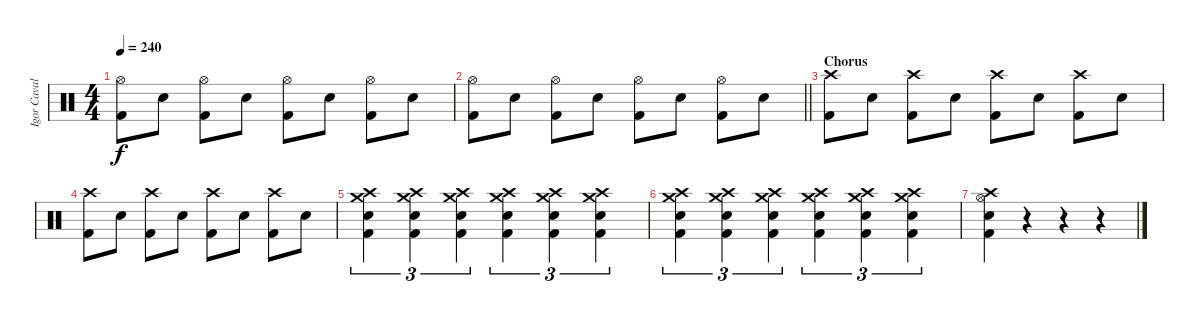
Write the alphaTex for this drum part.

\track ("Igor Cavalera" "Igor Caval") {instrument percussion}
\staff {score}
\articulation defaults
\ts (4 4)
\tempo 240
\clef neutral
\ks c
("Hi-Hat (open)" "Kick (hit) 2").8{dy f} "Electric Snare (hit)".8 ("Hi-Hat (open)" "Kick (hit) 2").8 "Electric Snare (hit)".8 ("Hi-Hat (open)" "Kick (hit) 2").8 "Electric Snare (hit)".8 ("Hi-Hat (open)" "Kick (hit) 2").8 "Electric Snare (hit)".8 |
\barLineRight lightlight
("Hi-Hat (open)" "Kick (hit) 2").8 "Electric Snare (hit)".8 ("Hi-Hat (open)" "Kick (hit) 2").8 "Electric Snare (hit)".8 ("Hi-Hat (open)" "Kick (hit) 2").8 "Electric Snare (hit)".8 ("Hi-Hat (open)" "Kick (hit) 2").8 "Electric Snare (hit)".8 |
\section ("" "Chorus")
("Crash high (hit)" "Kick (hit) 2").8 "Electric Snare (hit)".8 ("Crash high (hit)" "Kick (hit) 2").8 "Electric Snare (hit)".8 ("Crash high (hit)" "Kick (hit) 2").8 "Electric Snare (hit)".8 ("Crash high (hit)" "Kick (hit) 2").8 "Electric Snare (hit)".8 |
("Crash high (hit)" "Kick (hit) 2").8 "Electric Snare (hit)".8 ("Crash high (hit)" "Kick (hit) 2").8 "Electric Snare (hit)".8 ("Crash high (hit)" "Kick (hit) 2").8 "Electric Snare (hit)".8 ("Crash high (hit)" "Kick (hit) 2").8 "Electric Snare (hit)".8 |
("Crash high (hit)" "Crash medium (hit)" "Electric Snare (hit)" "Kick (hit) 2").4{tu (3 2)} ("Crash high (hit)" "Crash medium (hit)" "Electric Snare (hit)" "Kick (hit) 2").4{tu (3 2)} ("Crash high (hit)" "Crash medium (hit)" "Electric Snare (hit)" "Kick (hit) 2").4{tu (3 2)} ("Crash high (hit)" "Crash medium (hit)" "Electric Snare (hit)" "Kick (hit) 2").4{tu (3 2)} ("Crash high (hit)" "Crash medium (hit)" "Electric Snare (hit)" "Kick (hit) 2").4{tu (3 2)} ("Crash high (hit)" "Crash medium (hit)" "Electric Snare (hit)" "Kick (hit) 2").4{tu (3 2)} |
("Crash high (hit)" "Crash medium (hit)" "Electric Snare (hit)" "Kick (hit) 2").4{tu (3 2)} ("Crash high (hit)" "Crash medium (hit)" "Electric Snare (hit)" "Kick (hit) 2").4{tu (3 2)} ("Crash high (hit)" "Crash medium (hit)" "Electric Snare (hit)" "Kick (hit) 2").4{tu (3 2)} ("Crash high (hit)" "Crash medium (hit)" "Electric Snare (hit)" "Kick (hit) 2").4{tu (3 2)} ("Crash high (hit)" "Crash medium (hit)" "Electric Snare (hit)" "Kick (hit) 2").4{tu (3 2)} ("Crash high (hit)" "Crash medium (hit)" "Electric Snare (hit)" "Kick (hit) 2").4{tu (3 2)} |
("Crash high (hit)" "Hi-Hat (open)" "Electric Snare (hit)" "Kick (hit) 2").4 r.4 r.4 r.4
